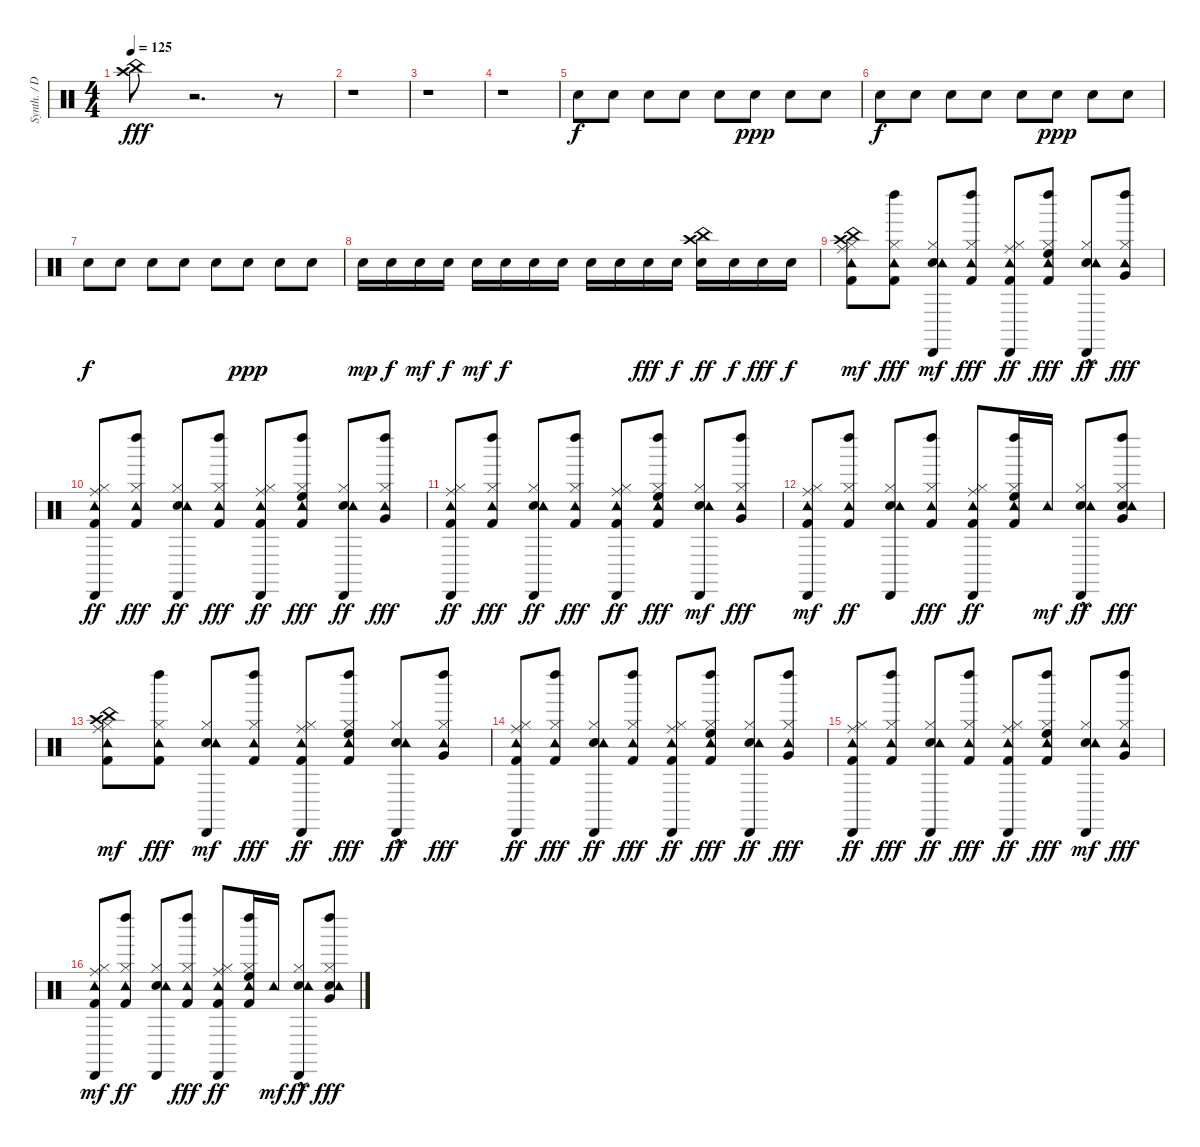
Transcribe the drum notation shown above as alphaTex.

\track ("Synth. / Drums" "Synth. / D") {instrument percussion}
\staff {score}
\articulation defaults
\ts (4 4)
\tempo 125
\clef neutral
\ks c
("Crash high (hit)" "China (hit)").8{dy fff} r.2{d} r.8 |
r.1 |
r.1 |
r.1 |
"Electric Snare (hit)".8{dy f} "Electric Snare (hit)".8 "Electric Snare (hit)".8 "Electric Snare (hit)".8 "Electric Snare (hit)".8 "Electric Snare (hit)".8{dy ppp} "Electric Snare (hit)".8 "Electric Snare (hit)".8 |
"Electric Snare (hit)".8{dy f} "Electric Snare (hit)".8 "Electric Snare (hit)".8 "Electric Snare (hit)".8 "Electric Snare (hit)".8 "Electric Snare (hit)".8{dy ppp} "Electric Snare (hit)".8 "Electric Snare (hit)".8 |
"Electric Snare (hit)".8{dy f} "Electric Snare (hit)".8 "Electric Snare (hit)".8 "Electric Snare (hit)".8 "Electric Snare (hit)".8 "Electric Snare (hit)".8{dy ppp} "Electric Snare (hit)".8 "Electric Snare (hit)".8 |
"Electric Snare (hit)".16{dy mp} "Electric Snare (hit)".16{dy f} "Electric Snare (hit)".16{dy mf} "Electric Snare (hit)".16{dy f} "Electric Snare (hit)".16{dy mf} "Electric Snare (hit)".16{dy f} "Electric Snare (hit)".16 "Electric Snare (hit)".16 "Electric Snare (hit)".16 "Electric Snare (hit)".16 "Electric Snare (hit)".16{dy fff} "Electric Snare (hit)".16{dy f} ("Electric Snare (hit)" "Crash high (hit)" "China (hit)").16{dy ff} "Electric Snare (hit)".16{dy f} "Electric Snare (hit)".16{dy fff} "Electric Snare (hit)".16{dy f} |
("Kick (hit) 2" "Hi-Hat (closed)" "Crash high (hit)" "Ride (middle)" "China (hit)" "Tambourine (hit)").8{dy mf} ("Kick (hit) 2" "Hi-Hat (closed)" "Tambourine (hit)" "Left Maraca (hit)").8{dy fff} ("Electric Snare (hit)" "Hi-Hat (closed)" "Tambourine (hit)" "Cabasa (hit)").8{dy mf} ("Kick (hit) 2" "Hi-Hat (closed)" "Tambourine (hit)" "Left Maraca (hit)").8{dy fff} ("Kick (hit) 2" "Hi-Hat (closed)" "Ride (middle)" "Tambourine (hit)" "Cabasa (hit)").8{dy ff} ("Kick (hit) 2" "Hi-Hat (closed)" "High Floor Tom (hit)" "Tambourine (hit)" "Left Maraca (hit)").8{dy fff} ("Electric Snare (hit)"{hac} "Hi-Hat (closed)" "Tambourine (hit)" "Cabasa (hit)").8{dy ff} ("Hi-Hat (closed)" "Very Low Tom (hit)" "Tambourine (hit)" "Left Maraca (hit)").8{dy fff} |
("Kick (hit) 2" "Hi-Hat (closed)" "Ride (middle)" "Tambourine (hit)" "Cabasa (hit)").8{dy ff} ("Kick (hit) 2" "Hi-Hat (closed)" "Tambourine (hit)" "Left Maraca (hit)").8{dy fff} ("Electric Snare (hit)" "Hi-Hat (closed)" "Tambourine (hit)" "Cabasa (hit)").8{dy ff} ("Kick (hit) 2" "Hi-Hat (closed)" "Tambourine (hit)" "Left Maraca (hit)").8{dy fff} ("Kick (hit) 2" "Hi-Hat (closed)" "Ride (middle)" "Tambourine (hit)" "Cabasa (hit)").8{dy ff} ("Kick (hit) 2" "Hi-Hat (closed)" "High Floor Tom (hit)" "Tambourine (hit)" "Left Maraca (hit)").8{dy fff} ("Electric Snare (hit)" "Hi-Hat (closed)" "Tambourine (hit)" "Cabasa (hit)").8{dy ff} ("Hi-Hat (closed)" "Very Low Tom (hit)" "Tambourine (hit)" "Left Maraca (hit)").8{dy fff} |
("Kick (hit) 2" "Hi-Hat (closed)" "Ride (middle)" "Tambourine (hit)" "Cabasa (hit)").8{dy ff} ("Kick (hit) 2" "Hi-Hat (closed)" "Tambourine (hit)" "Left Maraca (hit)").8{dy fff} ("Electric Snare (hit)" "Hi-Hat (closed)" "Tambourine (hit)" "Cabasa (hit)").8{dy ff} ("Kick (hit) 2" "Hi-Hat (closed)" "Tambourine (hit)" "Left Maraca (hit)").8{dy fff} ("Kick (hit) 2" "Hi-Hat (closed)" "Ride (middle)" "Tambourine (hit)" "Cabasa (hit)").8{dy ff} ("Kick (hit) 2" "Hi-Hat (closed)" "High Floor Tom (hit)" "Tambourine (hit)" "Left Maraca (hit)").8{dy fff} ("Electric Snare (hit)" "Hi-Hat (closed)" "Tambourine (hit)" "Cabasa (hit)").8{dy mf} ("Hi-Hat (closed)" "Very Low Tom (hit)" "Tambourine (hit)" "Left Maraca (hit)").8{dy fff} |
("Kick (hit) 2" "Hi-Hat (closed)" "Ride (middle)" "Tambourine (hit)" "Cabasa (hit)").8{dy mf} ("Kick (hit) 2" "Hi-Hat (closed)" "Tambourine (hit)" "Left Maraca (hit)").8{dy ff} ("Electric Snare (hit)" "Hi-Hat (closed)" "Tambourine (hit)" "Cabasa (hit)").8 ("Kick (hit) 2" "Hi-Hat (closed)" "Tambourine (hit)" "Left Maraca (hit)").8{dy fff} ("Kick (hit) 2" "Hi-Hat (closed)" "Ride (middle)" "Tambourine (hit)" "Cabasa (hit)").8{dy ff} ("Kick (hit) 2" "Hi-Hat (closed)" "High Floor Tom (hit)" "Tambourine (hit)" "Left Maraca (hit)").16 "Tambourine (hit)".16{dy mf} ("Electric Snare (hit)" "Hi-Hat (closed)" "Tambourine (hit)" "Cabasa (hit)"{hac}).8{dy ff} ("Electric Snare (hit)" "Hi-Hat (closed)" "Very Low Tom (hit)" "Tambourine (hit)" "Left Maraca (hit)").8{dy fff} |
("Kick (hit) 2" "Hi-Hat (closed)" "Crash high (hit)" "Ride (middle)" "China (hit)" "Tambourine (hit)").8{dy mf} ("Kick (hit) 2" "Hi-Hat (closed)" "Tambourine (hit)" "Left Maraca (hit)").8{dy fff} ("Electric Snare (hit)" "Hi-Hat (closed)" "Tambourine (hit)" "Cabasa (hit)").8{dy mf} ("Kick (hit) 2" "Hi-Hat (closed)" "Tambourine (hit)" "Left Maraca (hit)").8{dy fff} ("Kick (hit) 2" "Hi-Hat (closed)" "Ride (middle)" "Tambourine (hit)" "Cabasa (hit)").8{dy ff} ("Kick (hit) 2" "Hi-Hat (closed)" "High Floor Tom (hit)" "Tambourine (hit)" "Left Maraca (hit)").8{dy fff} ("Electric Snare (hit)"{hac} "Hi-Hat (closed)" "Tambourine (hit)" "Cabasa (hit)").8{dy ff} ("Hi-Hat (closed)" "Very Low Tom (hit)" "Tambourine (hit)" "Left Maraca (hit)").8{dy fff} |
("Kick (hit) 2" "Hi-Hat (closed)" "Ride (middle)" "Tambourine (hit)" "Cabasa (hit)").8{dy ff} ("Kick (hit) 2" "Hi-Hat (closed)" "Tambourine (hit)" "Left Maraca (hit)").8{dy fff} ("Electric Snare (hit)" "Hi-Hat (closed)" "Tambourine (hit)" "Cabasa (hit)").8{dy ff} ("Kick (hit) 2" "Hi-Hat (closed)" "Tambourine (hit)" "Left Maraca (hit)").8{dy fff} ("Kick (hit) 2" "Hi-Hat (closed)" "Ride (middle)" "Tambourine (hit)" "Cabasa (hit)").8{dy ff} ("Kick (hit) 2" "Hi-Hat (closed)" "High Floor Tom (hit)" "Tambourine (hit)" "Left Maraca (hit)").8{dy fff} ("Electric Snare (hit)" "Hi-Hat (closed)" "Tambourine (hit)" "Cabasa (hit)").8{dy ff} ("Hi-Hat (closed)" "Very Low Tom (hit)" "Tambourine (hit)" "Left Maraca (hit)").8{dy fff} |
("Kick (hit) 2" "Hi-Hat (closed)" "Ride (middle)" "Tambourine (hit)" "Cabasa (hit)").8{dy ff} ("Kick (hit) 2" "Hi-Hat (closed)" "Tambourine (hit)" "Left Maraca (hit)").8{dy fff} ("Electric Snare (hit)" "Hi-Hat (closed)" "Tambourine (hit)" "Cabasa (hit)").8{dy ff} ("Kick (hit) 2" "Hi-Hat (closed)" "Tambourine (hit)" "Left Maraca (hit)").8{dy fff} ("Kick (hit) 2" "Hi-Hat (closed)" "Ride (middle)" "Tambourine (hit)" "Cabasa (hit)").8{dy ff} ("Kick (hit) 2" "Hi-Hat (closed)" "High Floor Tom (hit)" "Tambourine (hit)" "Left Maraca (hit)").8{dy fff} ("Electric Snare (hit)" "Hi-Hat (closed)" "Tambourine (hit)" "Cabasa (hit)").8{dy mf} ("Hi-Hat (closed)" "Very Low Tom (hit)" "Tambourine (hit)" "Left Maraca (hit)").8{dy fff} |
("Kick (hit) 2" "Hi-Hat (closed)" "Ride (middle)" "Tambourine (hit)" "Cabasa (hit)").8{dy mf} ("Kick (hit) 2" "Hi-Hat (closed)" "Tambourine (hit)" "Left Maraca (hit)").8{dy ff} ("Electric Snare (hit)" "Hi-Hat (closed)" "Tambourine (hit)" "Cabasa (hit)").8 ("Kick (hit) 2" "Hi-Hat (closed)" "Tambourine (hit)" "Left Maraca (hit)").8{dy fff} ("Kick (hit) 2" "Hi-Hat (closed)" "Ride (middle)" "Tambourine (hit)" "Cabasa (hit)").8{dy ff} ("Kick (hit) 2" "Hi-Hat (closed)" "High Floor Tom (hit)" "Tambourine (hit)" "Left Maraca (hit)").16 "Tambourine (hit)".16{dy mf} ("Electric Snare (hit)" "Hi-Hat (closed)" "Tambourine (hit)" "Cabasa (hit)"{hac}).8{dy ff} ("Electric Snare (hit)" "Hi-Hat (closed)" "Very Low Tom (hit)" "Tambourine (hit)" "Left Maraca (hit)").8{dy fff}
